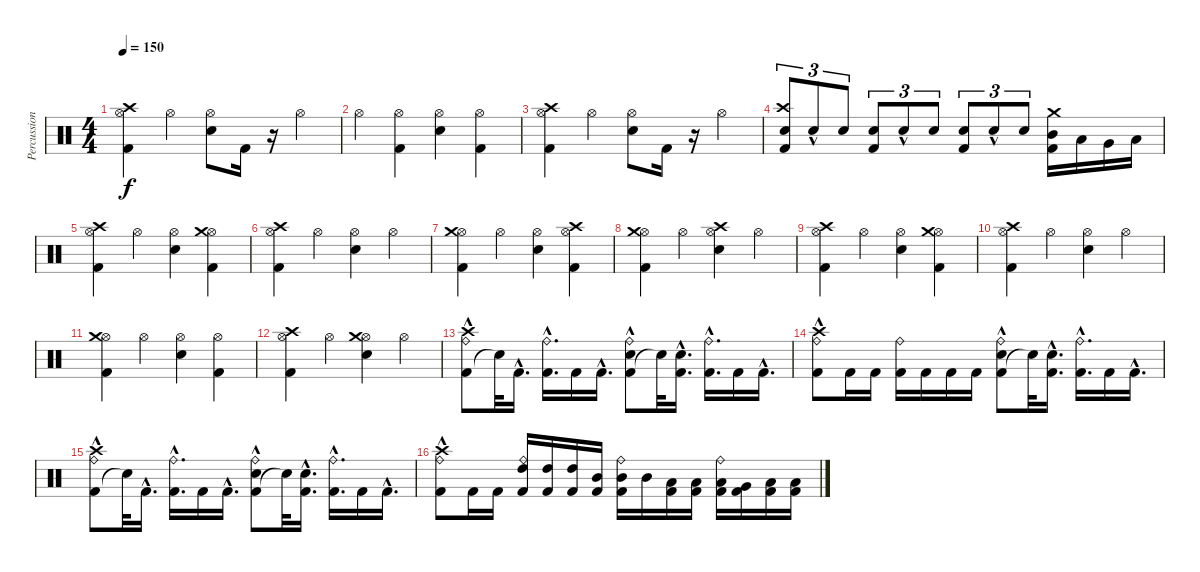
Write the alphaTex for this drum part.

\track ("Percussion" "Percussion") {instrument percussion}
\staff {score}
\articulation defaults
\ts (4 4)
\tempo 150
\clef neutral
\ks c
("Kick (hit) 2" "Hi-Hat (open)" "Crash high (hit)").4{dy f} "Hi-Hat (open)".4 ("Electric Snare (hit)" "Hi-Hat (open)").8 "Kick (hit) 2".16 r.16 "Hi-Hat (open)".4 |
"Hi-Hat (open)".4 ("Kick (hit) 2" "Hi-Hat (open)").4 ("Electric Snare (hit)" "Hi-Hat (open)").4 ("Kick (hit) 2" "Hi-Hat (open)").4 |
("Kick (hit) 2" "Hi-Hat (open)" "Crash high (hit)").4 "Hi-Hat (open)".4 ("Electric Snare (hit)" "Hi-Hat (open)").8 "Kick (hit) 2".16 r.16 "Hi-Hat (open)".4 |
("Kick (hit) 2" "Electric Snare (hit)" "Crash high (hit)").8{tu (3 2)} "Electric Snare (hit)"{hac}.8{tu (3 2)} "Electric Snare (hit)".8{tu (3 2)} ("Kick (hit) 2" "Electric Snare (hit)").8{tu (3 2)} "Electric Snare (hit)"{hac}.8{tu (3 2)} "Electric Snare (hit)".8{tu (3 2)} ("Kick (hit) 2" "Electric Snare (hit)").8{tu (3 2)} "Electric Snare (hit)"{hac}.8{tu (3 2)} "Electric Snare (hit)".8{tu (3 2)} ("Kick (hit) 2" "Mid Tom (hit)" "Crash medium (hit)").16 "Low Tom (hit)".16 "Very Low Tom (hit)".16 "Low Floor Tom (hit)".16 |
("Kick (hit) 2" "Hi-Hat (open)" "Crash high (hit)").4 "Hi-Hat (open)".4 ("Electric Snare (hit)" "Hi-Hat (open)").4 ("Kick (hit) 2" "Hi-Hat (open)" "Crash medium (hit)").4 |
("Kick (hit) 2" "Hi-Hat (open)" "Crash high (hit)").4 "Hi-Hat (open)".4 ("Electric Snare (hit)" "Hi-Hat (open)").4 "Hi-Hat (open)".4 |
("Kick (hit) 2" "Hi-Hat (open)" "Crash medium (hit)").4 "Hi-Hat (open)".4 ("Electric Snare (hit)" "Hi-Hat (open)").4 ("Kick (hit) 2" "Hi-Hat (open)" "Crash high (hit)").4 |
("Kick (hit) 2" "Hi-Hat (open)" "Crash medium (hit)").4 "Hi-Hat (open)".4 ("Electric Snare (hit)" "Hi-Hat (open)" "Crash high (hit)").4 "Hi-Hat (open)".4 |
("Kick (hit) 2" "Hi-Hat (open)" "Crash high (hit)").4 "Hi-Hat (open)".4 ("Electric Snare (hit)" "Hi-Hat (open)").4 ("Kick (hit) 2" "Hi-Hat (open)" "Crash medium (hit)").4 |
("Kick (hit) 2" "Hi-Hat (open)" "Crash high (hit)").4 "Hi-Hat (open)".4 ("Electric Snare (hit)" "Hi-Hat (open)").4 "Hi-Hat (open)".4 |
("Kick (hit) 2" "Hi-Hat (open)" "Crash medium (hit)").4 "Hi-Hat (open)".4 ("Electric Snare (hit)" "Hi-Hat (open)").4 ("Kick (hit) 2" "Hi-Hat (open)").4 |
("Kick (hit) 2" "Hi-Hat (open)" "Crash high (hit)").4 "Hi-Hat (open)".4 ("Electric Snare (hit)" "Hi-Hat (open)" "Crash medium (hit)").4 "Hi-Hat (open)".4 |
("Kick (hit) 2"{hac} "Crash high (hit)"{hac} "Ride (bell)").8 "Snare (hit)"{t}.32 "Kick (hit) 2"{hac}.16{d} ("Kick (hit) 2"{hac} "Ride (bell)").16{d} "Kick (hit) 2".16 "Kick (hit) 2"{hac}.16{d} ("Kick (hit) 2"{hac} "Electric Snare (hit)"{hac} "Ride (bell)").8 "Snare (hit)"{t}.32 ("Kick (hit) 2"{hac} "Electric Snare (hit)"{hac}).16{d} ("Kick (hit) 2"{hac} "Ride (bell)").16{d} "Kick (hit) 2".16 "Kick (hit) 2"{hac}.16{d} |
("Kick (hit) 2" "Crash high (hit)"{hac} "Ride (bell)").8 "Kick (hit) 2".16 "Kick (hit) 2".16 ("Kick (hit) 2" "Ride (bell)").16 "Kick (hit) 2".16 "Kick (hit) 2".16 "Kick (hit) 2".16 ("Kick (hit) 2"{hac} "Electric Snare (hit)"{hac} "Ride (bell)").8 "Snare (hit)"{t}.32 ("Kick (hit) 2"{hac} "Electric Snare (hit)"{hac}).16{d} ("Kick (hit) 2"{hac} "Ride (bell)").16{d} "Kick (hit) 2".16 "Kick (hit) 2"{hac}.16{d} |
("Kick (hit) 2"{hac} "Crash high (hit)"{hac} "Ride (bell)").8 "Snare (hit)"{t}.32 "Kick (hit) 2"{hac}.16{d} ("Kick (hit) 2"{hac} "Ride (bell)").16{d} "Kick (hit) 2".16 "Kick (hit) 2"{hac}.16{d} ("Kick (hit) 2"{hac} "Electric Snare (hit)"{hac} "Ride (bell)").8 "Snare (hit)"{t}.32 ("Kick (hit) 2"{hac} "Electric Snare (hit)"{hac}).16{d} ("Kick (hit) 2"{hac} "Ride (bell)").16{d} "Kick (hit) 2".16 "Kick (hit) 2"{hac}.16{d} |
("Kick (hit) 2" "Crash high (hit)"{hac} "Ride (bell)").8 "Kick (hit) 2".16 "Kick (hit) 2".16 ("Kick (hit) 2" "High Tom (hit)" "Ride (bell)").16 ("Kick (hit) 2" "High Tom (hit)").16 ("Kick (hit) 2" "High Tom (hit)").16 ("Kick (hit) 2" "Mid Tom (hit)").16 ("Kick (hit) 2" "Mid Tom (hit)" "Ride (bell)").16 "Mid Tom (hit)".16 ("Kick (hit) 2" "Low Tom (hit)").16 ("Kick (hit) 2" "Low Tom (hit)").16 ("Kick (hit) 2" "Low Tom (hit)" "Ride (bell)").16 ("Kick (hit) 2" "Very Low Tom (hit)").16 ("Kick (hit) 2" "Low Floor Tom (hit)").16 ("Kick (hit) 2" "Low Floor Tom (hit)").16
